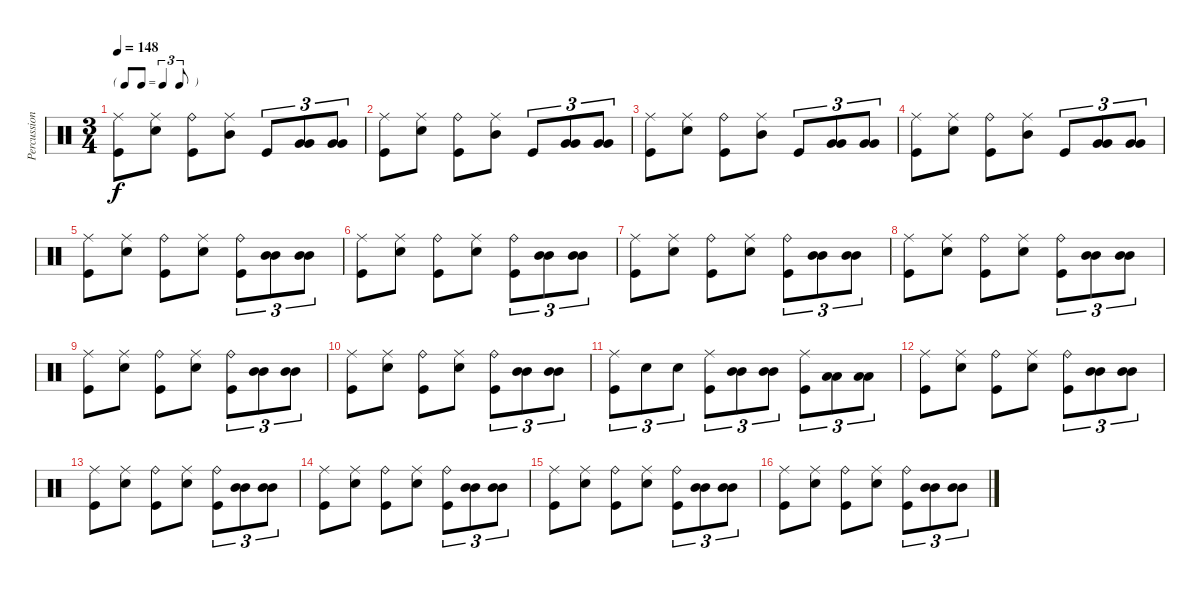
\track ("Percussions" "Percussion") {instrument percussion}
\staff {score}
\articulation defaults
\ts (3 4)
\tf triplet8th
\tempo 148
\clef neutral
\ks c
("Ride (middle)" "Kick (hit)").8{dy f} ("Ride (middle)" "Electric Snare (hit)").8 ("Ride (bell)" "Kick (hit)").8 ("Ride (middle)" "Mid Tom (hit)").8 "Kick (hit)".8{tu (3 2)} ("Very Low Tom (hit)" "Very Low Tom (hit)").8{tu (3 2)} ("Very Low Tom (hit)" "Very Low Tom (hit)").8{tu (3 2)} |
("Ride (middle)" "Kick (hit)").8 ("Ride (middle)" "Electric Snare (hit)").8 ("Ride (bell)" "Kick (hit)").8 ("Ride (middle)" "Mid Tom (hit)").8 "Kick (hit)".8{tu (3 2)} ("Very Low Tom (hit)" "Very Low Tom (hit)").8{tu (3 2)} ("Very Low Tom (hit)" "Very Low Tom (hit)").8{tu (3 2)} |
("Ride (middle)" "Kick (hit)").8 ("Ride (middle)" "Electric Snare (hit)").8 ("Ride (bell)" "Kick (hit)").8 ("Ride (middle)" "Mid Tom (hit)").8 "Kick (hit)".8{tu (3 2)} ("Very Low Tom (hit)" "Very Low Tom (hit)").8{tu (3 2)} ("Very Low Tom (hit)" "Very Low Tom (hit)").8{tu (3 2)} |
("Ride (middle)" "Kick (hit)").8 ("Ride (middle)" "Electric Snare (hit)").8 ("Ride (bell)" "Kick (hit)").8 ("Ride (middle)" "Mid Tom (hit)").8 "Kick (hit)".8{tu (3 2)} ("Very Low Tom (hit)" "Very Low Tom (hit)").8{tu (3 2)} ("Very Low Tom (hit)" "Very Low Tom (hit)").8{tu (3 2)} |
("Ride (middle)" "Kick (hit)").8 ("Ride (middle)" "Electric Snare (hit)").8 ("Ride (bell)" "Kick (hit)").8 ("Ride (middle)" "Electric Snare (hit)").8 ("Ride (bell)" "Kick (hit)").8{tu (3 2)} ("Mid Tom (hit)" "Mid Tom (hit)").8{tu (3 2)} ("Mid Tom (hit)" "Mid Tom (hit)").8{tu (3 2)} |
("Ride (middle)" "Kick (hit)").8 ("Ride (middle)" "Electric Snare (hit)").8 ("Ride (bell)" "Kick (hit)").8 ("Ride (middle)" "Electric Snare (hit)").8 ("Ride (bell)" "Kick (hit)").8{tu (3 2)} ("Mid Tom (hit)" "Mid Tom (hit)").8{tu (3 2)} ("Mid Tom (hit)" "Mid Tom (hit)").8{tu (3 2)} |
("Ride (middle)" "Kick (hit)").8 ("Ride (middle)" "Electric Snare (hit)").8 ("Ride (bell)" "Kick (hit)").8 ("Ride (middle)" "Electric Snare (hit)").8 ("Ride (bell)" "Kick (hit)").8{tu (3 2)} ("Mid Tom (hit)" "Mid Tom (hit)").8{tu (3 2)} ("Mid Tom (hit)" "Mid Tom (hit)").8{tu (3 2)} |
("Ride (middle)" "Kick (hit)").8 ("Ride (middle)" "Electric Snare (hit)").8 ("Ride (bell)" "Kick (hit)").8 ("Ride (middle)" "Electric Snare (hit)").8 ("Ride (bell)" "Kick (hit)").8{tu (3 2)} ("Mid Tom (hit)" "Mid Tom (hit)").8{tu (3 2)} ("Mid Tom (hit)" "Mid Tom (hit)").8{tu (3 2)} |
("Ride (middle)" "Kick (hit)").8 ("Ride (middle)" "Electric Snare (hit)").8 ("Ride (bell)" "Kick (hit)").8 ("Ride (middle)" "Electric Snare (hit)").8 ("Ride (bell)" "Kick (hit)").8{tu (3 2)} ("Mid Tom (hit)" "Mid Tom (hit)").8{tu (3 2)} ("Mid Tom (hit)" "Mid Tom (hit)").8{tu (3 2)} |
("Ride (middle)" "Kick (hit)").8 ("Ride (middle)" "Electric Snare (hit)").8 ("Ride (bell)" "Kick (hit)").8 ("Ride (middle)" "Electric Snare (hit)").8 ("Ride (bell)" "Kick (hit)").8{tu (3 2)} ("Mid Tom (hit)" "Mid Tom (hit)").8{tu (3 2)} ("Mid Tom (hit)" "Mid Tom (hit)").8{tu (3 2)} |
("Ride (middle)" "Kick (hit)").8{tu (3 2)} "Electric Snare (hit)".8{tu (3 2)} "Electric Snare (hit)".8{tu (3 2)} ("Ride (middle)" "Kick (hit)").8{tu (3 2)} ("Mid Tom (hit)" "Mid Tom (hit)").8{tu (3 2)} ("Mid Tom (hit)" "Mid Tom (hit)").8{tu (3 2)} ("Ride (middle)" "Kick (hit)").8{tu (3 2)} ("Low Tom (hit)" "Low Tom (hit)").8{tu (3 2)} ("Low Tom (hit)" "Low Tom (hit)").8{tu (3 2)} |
("Ride (middle)" "Kick (hit)").8 ("Ride (middle)" "Electric Snare (hit)").8 ("Ride (bell)" "Kick (hit)").8 ("Ride (middle)" "Electric Snare (hit)").8 ("Ride (bell)" "Kick (hit)").8{tu (3 2)} ("Mid Tom (hit)" "Mid Tom (hit)").8{tu (3 2)} ("Mid Tom (hit)" "Mid Tom (hit)").8{tu (3 2)} |
("Ride (middle)" "Kick (hit)").8 ("Ride (middle)" "Electric Snare (hit)").8 ("Ride (bell)" "Kick (hit)").8 ("Ride (middle)" "Electric Snare (hit)").8 ("Ride (bell)" "Kick (hit)").8{tu (3 2)} ("Mid Tom (hit)" "Mid Tom (hit)").8{tu (3 2)} ("Mid Tom (hit)" "Mid Tom (hit)").8{tu (3 2)} |
("Ride (middle)" "Kick (hit)").8 ("Ride (middle)" "Electric Snare (hit)").8 ("Ride (bell)" "Kick (hit)").8 ("Ride (middle)" "Electric Snare (hit)").8 ("Ride (bell)" "Kick (hit)").8{tu (3 2)} ("Mid Tom (hit)" "Mid Tom (hit)").8{tu (3 2)} ("Mid Tom (hit)" "Mid Tom (hit)").8{tu (3 2)} |
("Ride (middle)" "Kick (hit)").8 ("Ride (middle)" "Electric Snare (hit)").8 ("Ride (bell)" "Kick (hit)").8 ("Ride (middle)" "Electric Snare (hit)").8 ("Ride (bell)" "Kick (hit)").8{tu (3 2)} ("Mid Tom (hit)" "Mid Tom (hit)").8{tu (3 2)} ("Mid Tom (hit)" "Mid Tom (hit)").8{tu (3 2)} |
("Ride (middle)" "Kick (hit)").8 ("Ride (middle)" "Electric Snare (hit)").8 ("Ride (bell)" "Kick (hit)").8 ("Ride (middle)" "Electric Snare (hit)").8 ("Ride (bell)" "Kick (hit)").8{tu (3 2)} ("Mid Tom (hit)" "Mid Tom (hit)").8{tu (3 2)} ("Mid Tom (hit)" "Mid Tom (hit)").8{tu (3 2)}
